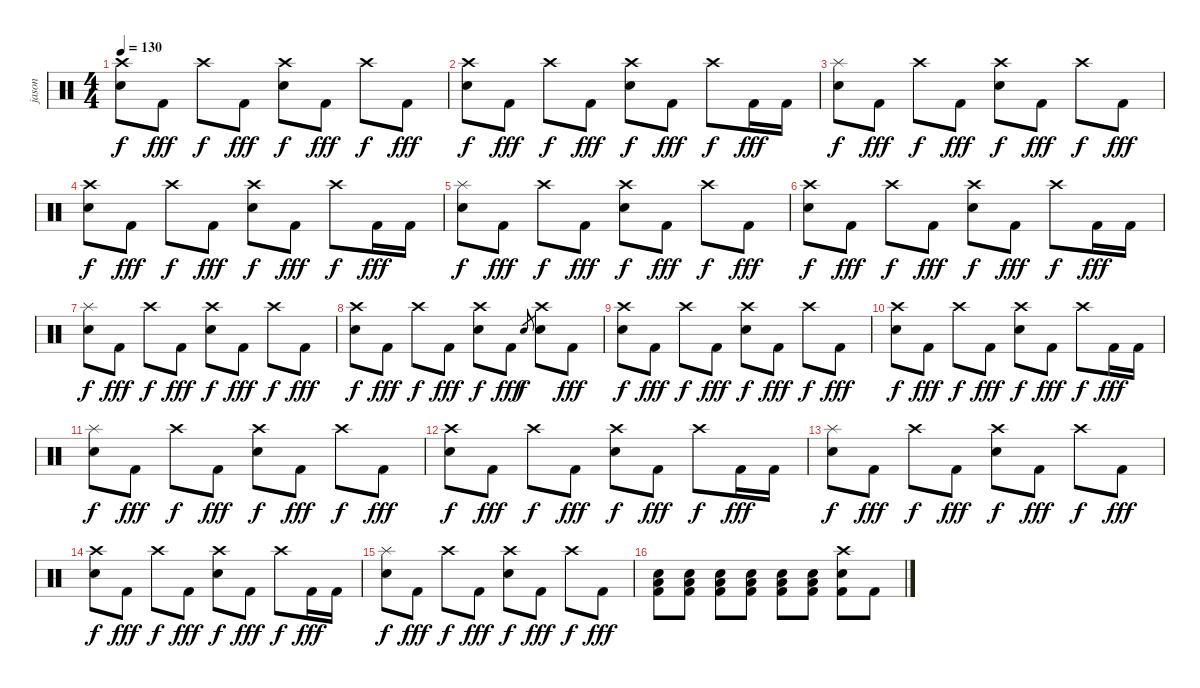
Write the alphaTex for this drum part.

\track ("jason" "jason") {solo instrument percussion}
\staff {score}
\articulation defaults
\ts (4 4)
\tempo 130
\clef neutral
\ks c
("Crash high (hit)" "Snare (hit) 2").8{dy f} "Kick (hit) 2".8{dy fff} "Crash high (hit)".8{dy f} "Kick (hit) 2".8{dy fff} ("Crash high (hit)" "Snare (hit) 2").8{dy f} "Kick (hit) 2".8{dy fff} "Crash high (hit)".8{dy f} "Kick (hit) 2".8{dy fff} |
("Crash high (hit)" "Snare (hit) 2").8{dy f} "Kick (hit) 2".8{dy fff} "Crash high (hit)".8{dy f} "Kick (hit) 2".8{dy fff} ("Crash high (hit)" "Snare (hit) 2").8{dy f} "Kick (hit) 2".8{dy fff} "Crash high (hit)".8{dy f} "Kick (hit) 2".16{dy fff} "Kick (hit) 2".16 |
("Splash (hit)" "Snare (hit) 2").8{dy f} "Kick (hit) 2".8{dy fff} "Crash high (hit)".8{dy f} "Kick (hit) 2".8{dy fff} ("Crash high (hit)" "Snare (hit) 2").8{dy f} "Kick (hit) 2".8{dy fff} "Crash high (hit)".8{dy f} "Kick (hit) 2".8{dy fff} |
("Crash high (hit)" "Snare (hit) 2").8{dy f} "Kick (hit) 2".8{dy fff} "Crash high (hit)".8{dy f} "Kick (hit) 2".8{dy fff} ("Crash high (hit)" "Snare (hit) 2").8{dy f} "Kick (hit) 2".8{dy fff} "Crash high (hit)".8{dy f} "Kick (hit) 2".16{dy fff} "Kick (hit) 2".16 |
("Splash (hit)" "Snare (hit) 2").8{dy f} "Kick (hit) 2".8{dy fff} "Crash high (hit)".8{dy f} "Kick (hit) 2".8{dy fff} ("Crash high (hit)" "Snare (hit) 2").8{dy f} "Kick (hit) 2".8{dy fff} "Crash high (hit)".8{dy f} "Kick (hit) 2".8{dy fff} |
("Crash high (hit)" "Snare (hit) 2").8{dy f} "Kick (hit) 2".8{dy fff} "Crash high (hit)".8{dy f} "Kick (hit) 2".8{dy fff} ("Crash high (hit)" "Snare (hit) 2").8{dy f} "Kick (hit) 2".8{dy fff} "Crash high (hit)".8{dy f} "Kick (hit) 2".16{dy fff} "Kick (hit) 2".16 |
("Splash (hit)" "Snare (hit) 2").8{dy f} "Kick (hit) 2".8{dy fff} "Crash high (hit)".8{dy f} "Kick (hit) 2".8{dy fff} ("Crash high (hit)" "Snare (hit) 2").8{dy f} "Kick (hit) 2".8{dy fff} "Crash high (hit)".8{dy f} "Kick (hit) 2".8{dy fff} |
("Crash high (hit)" "Snare (hit) 2").8{dy f} "Kick (hit) 2".8{dy fff} "Crash high (hit)".8{dy f} "Kick (hit) 2".8{dy fff} ("Crash high (hit)" "Snare (hit) 2").8{dy f} "Kick (hit) 2".8{dy fff} "Snare (hit) 2"{sl}.8{gr dy f} ("Crash high (hit)" "Snare (hit) 2").8 "Kick (hit) 2".8{dy fff} |
("Crash high (hit)" "Snare (hit) 2").8{dy f} "Kick (hit) 2".8{dy fff} "Crash high (hit)".8{dy f} "Kick (hit) 2".8{dy fff} ("Crash high (hit)" "Snare (hit) 2").8{dy f} "Kick (hit) 2".8{dy fff} "Crash high (hit)".8{dy f} "Kick (hit) 2".8{dy fff} |
("Crash high (hit)" "Snare (hit) 2").8{dy f} "Kick (hit) 2".8{dy fff} "Crash high (hit)".8{dy f} "Kick (hit) 2".8{dy fff} ("Crash high (hit)" "Snare (hit) 2").8{dy f} "Kick (hit) 2".8{dy fff} "Crash high (hit)".8{dy f} "Kick (hit) 2".16{dy fff} "Kick (hit) 2".16 |
("Splash (hit)" "Snare (hit) 2").8{dy f} "Kick (hit) 2".8{dy fff} "Crash high (hit)".8{dy f} "Kick (hit) 2".8{dy fff} ("Crash high (hit)" "Snare (hit) 2").8{dy f} "Kick (hit) 2".8{dy fff} "Crash high (hit)".8{dy f} "Kick (hit) 2".8{dy fff} |
("Crash high (hit)" "Snare (hit) 2").8{dy f} "Kick (hit) 2".8{dy fff} "Crash high (hit)".8{dy f} "Kick (hit) 2".8{dy fff} ("Crash high (hit)" "Snare (hit) 2").8{dy f} "Kick (hit) 2".8{dy fff} "Crash high (hit)".8{dy f} "Kick (hit) 2".16{dy fff} "Kick (hit) 2".16 |
("Splash (hit)" "Snare (hit) 2").8{dy f} "Kick (hit) 2".8{dy fff} "Crash high (hit)".8{dy f} "Kick (hit) 2".8{dy fff} ("Crash high (hit)" "Snare (hit) 2").8{dy f} "Kick (hit) 2".8{dy fff} "Crash high (hit)".8{dy f} "Kick (hit) 2".8{dy fff} |
("Crash high (hit)" "Snare (hit) 2").8{dy f} "Kick (hit) 2".8{dy fff} "Crash high (hit)".8{dy f} "Kick (hit) 2".8{dy fff} ("Crash high (hit)" "Snare (hit) 2").8{dy f} "Kick (hit) 2".8{dy fff} "Crash high (hit)".8{dy f} "Kick (hit) 2".16{dy fff} "Kick (hit) 2".16 |
("Splash (hit)" "Snare (hit) 2").8{dy f} "Kick (hit) 2".8{dy fff} "Crash high (hit)".8{dy f} "Kick (hit) 2".8{dy fff} ("Crash high (hit)" "Snare (hit) 2").8{dy f} "Kick (hit) 2".8{dy fff} "Crash high (hit)".8{dy f} "Kick (hit) 2".8{dy fff} |
("Low Floor Tom (hit)" "Snare (hit) 2" "Kick (hit) 2").8 ("Low Floor Tom (hit)" "Snare (hit) 2" "Kick (hit) 2").8 ("Low Floor Tom (hit)" "Snare (hit) 2" "Kick (hit) 2").8 ("Low Floor Tom (hit)" "Snare (hit) 2" "Kick (hit) 2").8 ("Low Floor Tom (hit)" "Snare (hit) 2" "Kick (hit) 2").8 ("Low Floor Tom (hit)" "Snare (hit) 2" "Kick (hit) 2").8 ("Crash high (hit)" "Snare (hit) 2" "Kick (hit) 2").8 "Kick (hit) 2".8
